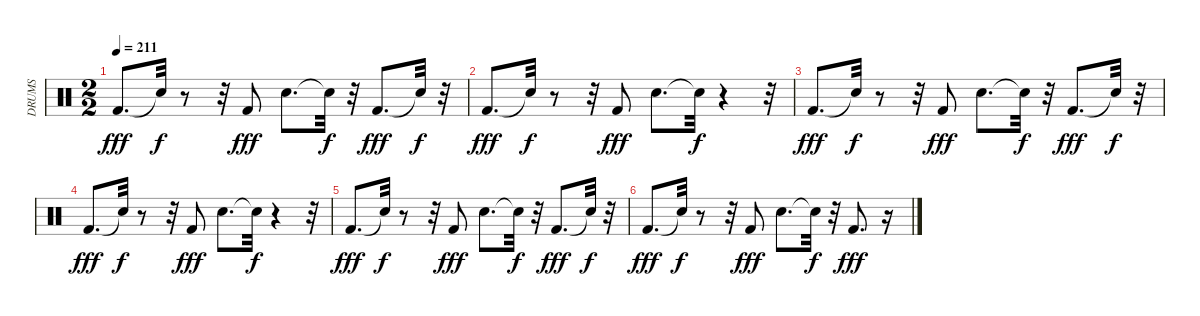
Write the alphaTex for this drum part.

\track ("DRUMS" "DRUMS") {instrument percussion}
\staff {score}
\articulation defaults
\ts (2 2)
\tempo 211
\clef neutral
\ks c "Kick (hit) 2".8{d dy fff} "Snare (hit)"{t}.32{dy f}
r.8 r.32 "Kick (hit) 2".8{dy fff} "Snare (hit) 2".8{d} "Snare (hit)"{t}.32{dy f} r.32 "Kick (hit) 2".8{d dy fff} "Snare (hit)"{t}.32{dy f} r.32 |
"Kick (hit) 2".8{d dy fff} "Snare (hit)"{t}.32{dy f} r.8 r.32 "Kick (hit) 2".8{dy fff} "Snare (hit) 2".8{d} "Snare (hit)"{t}.32{dy f} r.4 r.32 |
"Kick (hit) 2".8{d dy fff} "Snare (hit)"{t}.32{dy f} r.8 r.32 "Kick (hit) 2".8{dy fff} "Snare (hit) 2".8{d} "Snare (hit)"{t}.32{dy f} r.32 "Kick (hit) 2".8{d dy fff} "Snare (hit)"{t}.32{dy f} r.32 |
"Kick (hit) 2".8{d dy fff} "Snare (hit)"{t}.32{dy f} r.8 r.32 "Kick (hit) 2".8{dy fff} "Snare (hit) 2".8{d} "Snare (hit)"{t}.32{dy f} r.4 r.32 |
"Kick (hit) 2".8{d dy fff} "Snare (hit)"{t}.32{dy f} r.8 r.32 "Kick (hit) 2".8{dy fff} "Snare (hit) 2".8{d} "Snare (hit)"{t}.32{dy f} r.32 "Kick (hit) 2".8{d dy fff} "Snare (hit)"{t}.32{dy f} r.32 |
"Kick (hit) 2".8{d dy fff} "Snare (hit)"{t}.32{dy f} r.8 r.32 "Kick (hit) 2".8{dy fff} "Snare (hit) 2".8{d} "Snare (hit)"{t}.32{dy f} r.32 "Kick (hit) 2".8{d dy fff} r.16
